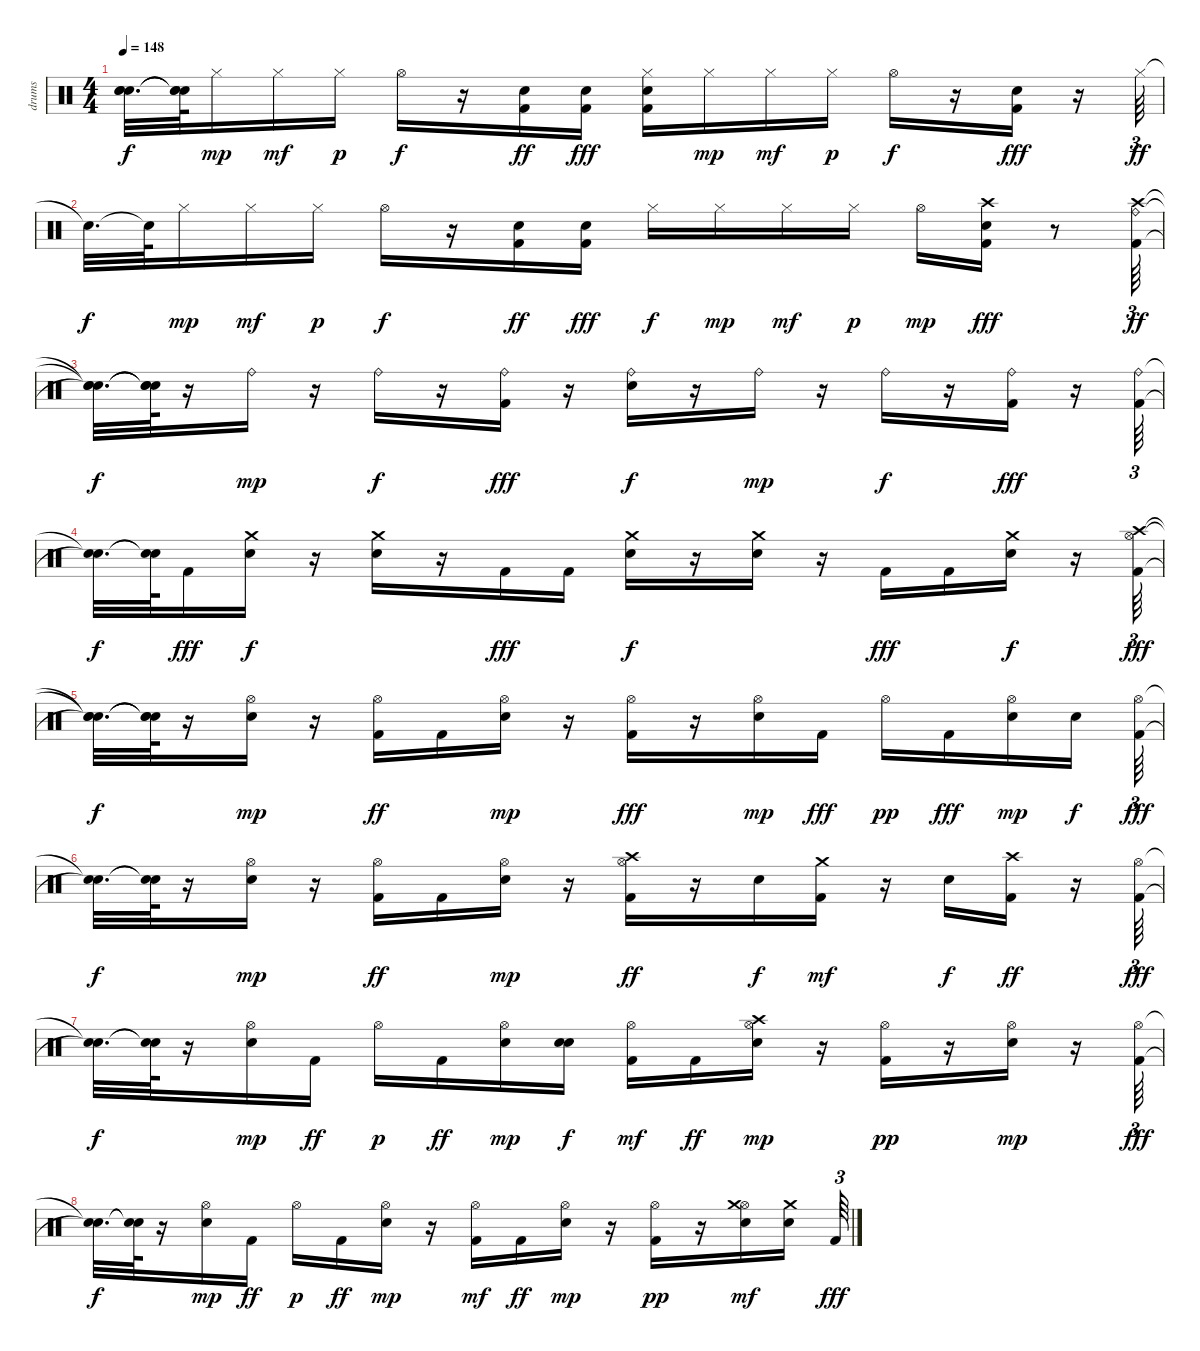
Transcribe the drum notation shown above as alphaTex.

\track ("drums" "drums") {instrument percussion}
\staff {score}
\articulation defaults
\ts (4 4)
\tempo 148
\clef neutral
\ks c
("Snare (hit)"{t} "Snare (hit)"{t} "Snare (hit)"{t}).32{d dy f} ("Snare (hit)"{t} "Snare (hit)"{t} "Snare (hit)"{t}).64 "Hi-Hat (closed)".16{dy mp} "Hi-Hat (closed)".16{dy mf} "Hi-Hat (closed)".16{dy p} "Hi-Hat (open)".16{dy f} r.16 ("Kick (hit) 2" "Snare (hit) 2").16{dy ff} ("Kick (hit) 2" "Snare (hit) 2").16{dy fff} ("Hi-Hat (closed)" "Kick (hit) 2" "Snare (hit) 2").16 "Hi-Hat (closed)".16{dy mp} "Hi-Hat (closed)".16{dy mf} "Hi-Hat (closed)".16{dy p} "Hi-Hat (open)".16{dy f} r.16 ("Kick (hit) 2" "Snare (hit) 2").16{dy fff} r.16 "Hi-Hat (closed)".64{tu (3 2) dy ff} |
"Snare (hit)"{t}.32{d dy f} "Snare (hit)"{t}.64 "Hi-Hat (closed)".16{dy mp} "Hi-Hat (closed)".16{dy mf} "Hi-Hat (closed)".16{dy p} "Hi-Hat (open)".16{dy f} r.16 ("Kick (hit) 2" "Snare (hit) 2").16{dy ff} ("Kick (hit) 2" "Snare (hit) 2").16{dy fff} "Hi-Hat (closed)".16{dy f} "Hi-Hat (closed)".16{dy mp} "Hi-Hat (closed)".16{dy mf} "Hi-Hat (closed)".16{dy p} "Hi-Hat (open)".16{dy mp} ("Crash high (hit)" "Snare (hit) 2" "Kick (hit) 2").16{dy fff} r.8 ("Kick (hit) 2" "Ride (bell)" "Crash high (hit)").64{tu (3 2) dy ff} |
("Snare (hit)"{t} "Snare (hit)"{t} "Snare (hit)"{t}).32{d dy f} ("Snare (hit)"{t} "Snare (hit)"{t} "Snare (hit)"{t}).64 r.16 "Ride (bell)".16{dy mp} r.16 "Ride (bell)".16{dy f} r.16 ("Ride (bell)" "Kick (hit) 2").16{dy fff} r.16 ("Electric Snare (hit)" "Ride (bell)").16{dy f} r.16 "Ride (bell)".16{dy mp} r.16 "Ride (bell)".16{dy f} r.16 ("Ride (bell)" "Kick (hit) 2").16{dy fff} r.16 ("Kick (hit) 2" "Ride (bell)").64{tu (3 2)} |
("Snare (hit)"{t} "Snare (hit)"{t}).32{d dy f} ("Snare (hit)"{t} "Snare (hit)"{t}).64 "Kick (hit) 2".16{dy fff} ("Electric Snare (hit)" "Crash medium (hit)").16{dy f} r.16 ("Electric Snare (hit)" "Crash medium (hit)").16 r.16 "Kick (hit) 2".16{dy fff} "Kick (hit) 2".16 ("Electric Snare (hit)" "Crash medium (hit)").16{dy f} r.16 ("Electric Snare (hit)" "Crash medium (hit)").16 r.16 "Kick (hit) 2".16{dy fff} "Kick (hit) 2".16 ("Electric Snare (hit)" "Crash medium (hit)").16{dy f} r.16 ("Crash high (hit)" "Hi-Hat (open)" "Kick (hit) 2").64{tu (3 2) dy fff} |
("Snare (hit)"{t} "Snare (hit)"{t} "Snare (hit)"{t}).32{d dy f} ("Snare (hit)"{t} "Snare (hit)"{t} "Snare (hit)"{t}).64 r.16 ("Hi-Hat (open)" "Electric Snare (hit)").16{dy mp} r.16 ("Hi-Hat (open)" "Kick (hit) 2").16{dy ff} "Kick (hit) 2".16 ("Hi-Hat (open)" "Electric Snare (hit)").16{dy mp} r.16 ("Hi-Hat (open)" "Kick (hit) 2").16{dy fff} r.16 ("Hi-Hat (open)" "Electric Snare (hit)").16{dy mp} "Kick (hit) 2".16{dy fff} "Hi-Hat (open)".16{dy pp} "Kick (hit) 2".16{dy fff} ("Hi-Hat (open)" "Electric Snare (hit)").16{dy mp} "Electric Snare (hit)".16{dy f} ("Hi-Hat (open)" "Kick (hit) 2").64{tu (3 2) dy fff} |
("Snare (hit)"{t} "Snare (hit)"{t}).32{d dy f} ("Snare (hit)"{t} "Snare (hit)"{t}).64 r.16 ("Hi-Hat (open)" "Electric Snare (hit)").16{dy mp} r.16 ("Hi-Hat (open)" "Kick (hit) 2").16{dy ff} "Kick (hit) 2".16 ("Hi-Hat (open)" "Electric Snare (hit)").16{dy mp} r.16 ("Crash high (hit)" "Hi-Hat (open)" "Kick (hit) 2").16{dy ff} r.16 "Electric Snare (hit)".16{dy f} ("Crash medium (hit)" "Kick (hit) 2").16{dy mf} r.16 "Electric Snare (hit)".16{dy f} ("Crash high (hit)" "Kick (hit) 2").16{dy ff} r.16 ("Hi-Hat (open)" "Kick (hit) 2").64{tu (3 2) dy fff} |
("Snare (hit)"{t} "Snare (hit)"{t}).32{d dy f} ("Snare (hit)"{t} "Snare (hit)"{t}).64 r.16 ("Hi-Hat (open)" "Electric Snare (hit)").16{dy mp} "Kick (hit) 2".16{dy ff} "Hi-Hat (open)".16{dy p} "Kick (hit) 2".16{dy ff} ("Hi-Hat (open)" "Electric Snare (hit)").16{dy mp} ("Electric Snare (hit)" "Electric Snare (hit)").16{dy f} ("Hi-Hat (open)" "Kick (hit) 2").16{dy mf} "Kick (hit) 2".16{dy ff} ("Crash high (hit)" "Hi-Hat (open)" "Electric Snare (hit)").16{dy mp} r.16 ("Hi-Hat (open)" "Kick (hit) 2").16{dy pp} r.16 ("Hi-Hat (open)" "Electric Snare (hit)").16{dy mp} r.16 ("Hi-Hat (open)" "Kick (hit) 2").64{tu (3 2) dy fff} |
("Snare (hit)"{t} "Snare (hit)"{t}).32{d dy f} ("Snare (hit)"{t} "Snare (hit)"{t}).64 r.16 ("Hi-Hat (open)" "Electric Snare (hit)").16{dy mp} "Kick (hit) 2".16{dy ff} "Hi-Hat (open)".16{dy p} "Kick (hit) 2".16{dy ff} ("Hi-Hat (open)" "Electric Snare (hit)").16{dy mp} r.16 ("Hi-Hat (open)" "Kick (hit) 2").16{dy mf} "Kick (hit) 2".16{dy ff} ("Hi-Hat (open)" "Electric Snare (hit)").16{dy mp} r.16 ("Hi-Hat (open)" "Kick (hit) 2").16{dy pp} r.16 ("Hi-Hat (open)" "Crash medium (hit)" "Electric Snare (hit)").16{dy mf} ("Crash medium (hit)" "Electric Snare (hit)").16 "Kick (hit) 2".64{tu (3 2) dy fff}
